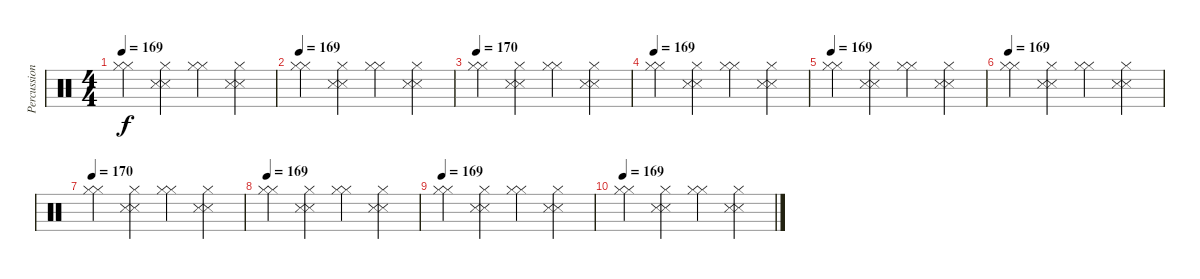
\track ("Percussion" "Percussion") {instrument percussion}
\staff {score}
\articulation defaults
\ts (4 4)
\tempo 169
\clef neutral
\ks c
("Hi-Hat (closed)" "Hi-Hat (closed)").4{dy f} ("Hi-Hat (closed)" "Snare (side stick) 3" "Snare (side stick) 3").4 ("Hi-Hat (closed)" "Hi-Hat (closed)").4 ("Hi-Hat (closed)" "Snare (side stick) 3" "Snare (side stick) 3").4 |
\tempo 169
("Hi-Hat (closed)" "Hi-Hat (closed)").4 ("Hi-Hat (closed)" "Snare (side stick) 3" "Snare (side stick) 3").4 ("Hi-Hat (closed)" "Hi-Hat (closed)").4 ("Hi-Hat (closed)" "Snare (side stick) 3" "Snare (side stick) 3").4 |
\tempo 169
\tempo 170
("Hi-Hat (closed)" "Hi-Hat (closed)").4 ("Hi-Hat (closed)" "Snare (side stick) 3" "Snare (side stick) 3").4 ("Hi-Hat (closed)" "Hi-Hat (closed)").4 ("Hi-Hat (closed)" "Snare (side stick) 3" "Snare (side stick) 3").4 |
\tempo 169
("Hi-Hat (closed)" "Hi-Hat (closed)").4 ("Hi-Hat (closed)" "Snare (side stick) 3" "Snare (side stick) 3").4 ("Hi-Hat (closed)" "Hi-Hat (closed)").4 ("Hi-Hat (closed)" "Snare (side stick) 3" "Snare (side stick) 3").4 |
\tempo 169
("Hi-Hat (closed)" "Hi-Hat (closed)").4 ("Hi-Hat (closed)" "Snare (side stick) 3" "Snare (side stick) 3").4 ("Hi-Hat (closed)" "Hi-Hat (closed)").4 ("Hi-Hat (closed)" "Snare (side stick) 3" "Snare (side stick) 3").4 |
\tempo 169
("Hi-Hat (closed)" "Hi-Hat (closed)").4 ("Hi-Hat (closed)" "Snare (side stick) 3" "Snare (side stick) 3").4 ("Hi-Hat (closed)" "Hi-Hat (closed)").4 ("Hi-Hat (closed)" "Snare (side stick) 3" "Snare (side stick) 3").4 |
\tempo 169
\tempo 170
("Hi-Hat (closed)" "Hi-Hat (closed)").4 ("Hi-Hat (closed)" "Snare (side stick) 3" "Snare (side stick) 3").4 ("Hi-Hat (closed)" "Hi-Hat (closed)").4 ("Hi-Hat (closed)" "Snare (side stick) 3" "Snare (side stick) 3").4 |
\tempo 169
("Hi-Hat (closed)" "Hi-Hat (closed)").4 ("Hi-Hat (closed)" "Snare (side stick) 3" "Snare (side stick) 3").4 ("Hi-Hat (closed)" "Hi-Hat (closed)").4 ("Hi-Hat (closed)" "Snare (side stick) 3" "Snare (side stick) 3").4 |
\tempo 169
("Hi-Hat (closed)" "Hi-Hat (closed)").4 ("Hi-Hat (closed)" "Snare (side stick) 3" "Snare (side stick) 3").4 ("Hi-Hat (closed)" "Hi-Hat (closed)").4 ("Hi-Hat (closed)" "Snare (side stick) 3" "Snare (side stick) 3").4 |
\tempo 169
("Hi-Hat (closed)" "Hi-Hat (closed)").4 ("Hi-Hat (closed)" "Snare (side stick) 3" "Snare (side stick) 3").4 ("Hi-Hat (closed)" "Hi-Hat (closed)").4 ("Hi-Hat (closed)" "Snare (side stick) 3" "Snare (side stick) 3").4
